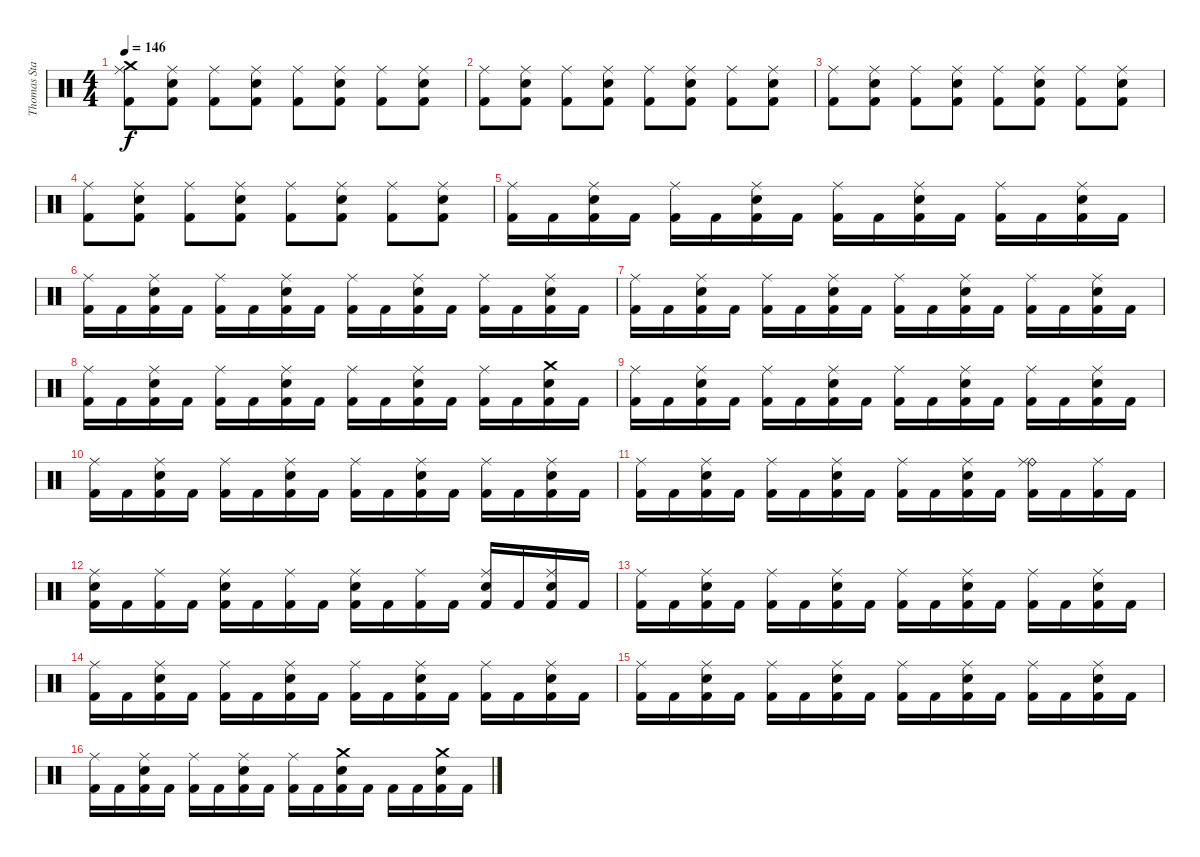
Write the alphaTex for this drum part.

\track ("Thomas Stauch" "Thomas Sta") {instrument percussion}
\staff {score}
\articulation defaults
\ts (4 4)
\tempo 146
\clef neutral
\ks c
("Crash medium (hit)" "Kick (hit) 2" "Ride (middle)").8{dy f} ("Electric Snare (hit)" "Kick (hit) 2" "Ride (middle)").8 ("Kick (hit) 2" "Ride (middle)").8 ("Electric Snare (hit)" "Kick (hit) 2" "Ride (middle)").8 ("Kick (hit) 2" "Ride (middle)").8 ("Electric Snare (hit)" "Kick (hit) 2" "Ride (middle)").8 ("Kick (hit) 2" "Ride (middle)").8 ("Electric Snare (hit)" "Kick (hit) 2" "Ride (middle)").8 |
("Kick (hit) 2" "Ride (middle)").8 ("Electric Snare (hit)" "Kick (hit) 2" "Ride (middle)").8 ("Kick (hit) 2" "Ride (middle)").8 ("Electric Snare (hit)" "Kick (hit) 2" "Ride (middle)").8 ("Kick (hit) 2" "Ride (middle)").8 ("Electric Snare (hit)" "Kick (hit) 2" "Ride (middle)").8 ("Kick (hit) 2" "Ride (middle)").8 ("Electric Snare (hit)" "Kick (hit) 2" "Ride (middle)").8 |
("Kick (hit) 2" "Ride (middle)").8 ("Electric Snare (hit)" "Kick (hit) 2" "Ride (middle)").8 ("Kick (hit) 2" "Ride (middle)").8 ("Electric Snare (hit)" "Kick (hit) 2" "Ride (middle)").8 ("Kick (hit) 2" "Ride (middle)").8 ("Electric Snare (hit)" "Kick (hit) 2" "Ride (middle)").8 ("Kick (hit) 2" "Ride (middle)").8 ("Electric Snare (hit)" "Kick (hit) 2" "Ride (middle)").8 |
("Kick (hit) 2" "Ride (middle)").8 ("Electric Snare (hit)" "Kick (hit) 2" "Ride (middle)").8 ("Kick (hit) 2" "Ride (middle)").8 ("Electric Snare (hit)" "Kick (hit) 2" "Ride (middle)").8 ("Kick (hit) 2" "Ride (middle)").8 ("Electric Snare (hit)" "Kick (hit) 2" "Ride (middle)").8 ("Kick (hit) 2" "Ride (middle)").8 ("Electric Snare (hit)" "Kick (hit) 2" "Ride (middle)").8 |
("Kick (hit) 2" "Ride (middle)").16 "Kick (hit) 2".16 ("Electric Snare (hit)" "Kick (hit) 2" "Ride (middle)").16 "Kick (hit) 2".16 ("Kick (hit) 2" "Ride (middle)").16 "Kick (hit) 2".16 ("Electric Snare (hit)" "Kick (hit) 2" "Ride (middle)").16 "Kick (hit) 2".16 ("Kick (hit) 2" "Ride (middle)").16 "Kick (hit) 2".16 ("Electric Snare (hit)" "Kick (hit) 2" "Ride (middle)").16 "Kick (hit) 2".16 ("Kick (hit) 2" "Ride (middle)").16 "Kick (hit) 2".16 ("Electric Snare (hit)" "Kick (hit) 2" "Ride (middle)").16 "Kick (hit) 2".16 |
("Kick (hit) 2" "Ride (middle)").16 "Kick (hit) 2".16 ("Electric Snare (hit)" "Kick (hit) 2" "Ride (middle)").16 "Kick (hit) 2".16 ("Kick (hit) 2" "Ride (middle)").16 "Kick (hit) 2".16 ("Electric Snare (hit)" "Kick (hit) 2" "Ride (middle)").16 "Kick (hit) 2".16 ("Kick (hit) 2" "Ride (middle)").16 "Kick (hit) 2".16 ("Electric Snare (hit)" "Kick (hit) 2" "Ride (middle)").16 "Kick (hit) 2".16 ("Kick (hit) 2" "Ride (middle)").16 "Kick (hit) 2".16 ("Electric Snare (hit)" "Kick (hit) 2" "Ride (middle)").16 "Kick (hit) 2".16 |
("Kick (hit) 2" "Ride (middle)").16 "Kick (hit) 2".16 ("Electric Snare (hit)" "Kick (hit) 2" "Ride (middle)").16 "Kick (hit) 2".16 ("Kick (hit) 2" "Ride (middle)").16 "Kick (hit) 2".16 ("Electric Snare (hit)" "Kick (hit) 2" "Ride (middle)").16 "Kick (hit) 2".16 ("Kick (hit) 2" "Ride (middle)").16 "Kick (hit) 2".16 ("Electric Snare (hit)" "Kick (hit) 2" "Ride (middle)").16 "Kick (hit) 2".16 ("Kick (hit) 2" "Ride (middle)").16 "Kick (hit) 2".16 ("Electric Snare (hit)" "Kick (hit) 2" "Ride (middle)").16 "Kick (hit) 2".16 |
("Kick (hit) 2" "Ride (middle)").16 "Kick (hit) 2".16 ("Electric Snare (hit)" "Kick (hit) 2" "Ride (middle)").16 "Kick (hit) 2".16 ("Kick (hit) 2" "Ride (middle)").16 "Kick (hit) 2".16 ("Electric Snare (hit)" "Kick (hit) 2" "Ride (middle)").16 "Kick (hit) 2".16 ("Kick (hit) 2" "Ride (middle)").16 "Kick (hit) 2".16 ("Electric Snare (hit)" "Kick (hit) 2" "Ride (middle)").16 "Kick (hit) 2".16 ("Kick (hit) 2" "Ride (middle)").16 "Kick (hit) 2".16 ("Electric Snare (hit)" "Crash medium (hit)" "Kick (hit) 2").16 "Kick (hit) 2".16 |
("Kick (hit) 2" "Ride (middle)").16 "Kick (hit) 2".16 ("Electric Snare (hit)" "Kick (hit) 2" "Ride (middle)").16 "Kick (hit) 2".16 ("Kick (hit) 2" "Ride (middle)").16 "Kick (hit) 2".16 ("Electric Snare (hit)" "Kick (hit) 2" "Ride (middle)").16 "Kick (hit) 2".16 ("Kick (hit) 2" "Ride (middle)").16 "Kick (hit) 2".16 ("Electric Snare (hit)" "Kick (hit) 2" "Ride (middle)").16 "Kick (hit) 2".16 ("Kick (hit) 2" "Ride (middle)").16 "Kick (hit) 2".16 ("Electric Snare (hit)" "Kick (hit) 2" "Ride (middle)").16 "Kick (hit) 2".16 |
("Kick (hit) 2" "Ride (middle)").16 "Kick (hit) 2".16 ("Electric Snare (hit)" "Kick (hit) 2" "Ride (middle)").16 "Kick (hit) 2".16 ("Kick (hit) 2" "Ride (middle)").16 "Kick (hit) 2".16 ("Electric Snare (hit)" "Kick (hit) 2" "Ride (middle)").16 "Kick (hit) 2".16 ("Kick (hit) 2" "Ride (middle)").16 "Kick (hit) 2".16 ("Electric Snare (hit)" "Kick (hit) 2" "Ride (middle)").16 "Kick (hit) 2".16 ("Kick (hit) 2" "Ride (middle)").16 "Kick (hit) 2".16 ("Electric Snare (hit)" "Kick (hit) 2" "Ride (middle)").16 "Kick (hit) 2".16 |
("Kick (hit) 2" "Ride (middle)").16 "Kick (hit) 2".16 ("Electric Snare (hit)" "Kick (hit) 2" "Ride (middle)").16 "Kick (hit) 2".16 ("Kick (hit) 2" "Ride (middle)").16 "Kick (hit) 2".16 ("Electric Snare (hit)" "Kick (hit) 2" "Ride (middle)").16 "Kick (hit) 2".16 ("Kick (hit) 2" "Ride (middle)").16 "Kick (hit) 2".16 ("Electric Snare (hit)" "Kick (hit) 2" "Ride (middle)").16 "Kick (hit) 2".16 ("Ride (bell)" "Kick (hit) 2" "Ride (middle)").16 "Kick (hit) 2".16 ("Kick (hit) 2" "Ride (middle)").16 "Kick (hit) 2".16 |
("Electric Snare (hit)" "Kick (hit) 2" "Ride (middle)").16 "Kick (hit) 2".16 ("Kick (hit) 2" "Ride (middle)").16 "Kick (hit) 2".16 ("Electric Snare (hit)" "Kick (hit) 2" "Ride (middle)").16 "Kick (hit) 2".16 ("Kick (hit) 2" "Ride (middle)").16 "Kick (hit) 2".16 ("Electric Snare (hit)" "Kick (hit) 2" "Ride (middle)").16 "Kick (hit) 2".16 ("Kick (hit) 2" "Ride (middle)").16 "Kick (hit) 2".16 ("Electric Snare (hit)" "Kick (hit) 2" "Ride (middle)").16 "Kick (hit) 2".16 ("Electric Snare (hit)" "Kick (hit) 2" "Ride (middle)").16 "Kick (hit) 2".16 |
("Kick (hit) 2" "Ride (middle)").16 "Kick (hit) 2".16 ("Electric Snare (hit)" "Kick (hit) 2" "Ride (middle)").16 "Kick (hit) 2".16 ("Kick (hit) 2" "Ride (middle)").16 "Kick (hit) 2".16 ("Electric Snare (hit)" "Kick (hit) 2" "Ride (middle)").16 "Kick (hit) 2".16 ("Kick (hit) 2" "Ride (middle)").16 "Kick (hit) 2".16 ("Electric Snare (hit)" "Kick (hit) 2" "Ride (middle)").16 "Kick (hit) 2".16 ("Kick (hit) 2" "Ride (middle)").16 "Kick (hit) 2".16 ("Electric Snare (hit)" "Kick (hit) 2" "Ride (middle)").16 "Kick (hit) 2".16 |
("Kick (hit) 2" "Ride (middle)").16 "Kick (hit) 2".16 ("Electric Snare (hit)" "Kick (hit) 2" "Ride (middle)").16 "Kick (hit) 2".16 ("Kick (hit) 2" "Ride (middle)").16 "Kick (hit) 2".16 ("Electric Snare (hit)" "Kick (hit) 2" "Ride (middle)").16 "Kick (hit) 2".16 ("Kick (hit) 2" "Ride (middle)").16 "Kick (hit) 2".16 ("Electric Snare (hit)" "Kick (hit) 2" "Ride (middle)").16 "Kick (hit) 2".16 ("Kick (hit) 2" "Ride (middle)").16 "Kick (hit) 2".16 ("Electric Snare (hit)" "Kick (hit) 2" "Ride (middle)").16 "Kick (hit) 2".16 |
("Kick (hit) 2" "Ride (middle)").16 "Kick (hit) 2".16 ("Electric Snare (hit)" "Kick (hit) 2" "Ride (middle)").16 "Kick (hit) 2".16 ("Kick (hit) 2" "Ride (middle)").16 "Kick (hit) 2".16 ("Electric Snare (hit)" "Kick (hit) 2" "Ride (middle)").16 "Kick (hit) 2".16 ("Kick (hit) 2" "Ride (middle)").16 "Kick (hit) 2".16 ("Electric Snare (hit)" "Kick (hit) 2" "Ride (middle)").16 "Kick (hit) 2".16 ("Kick (hit) 2" "Ride (middle)").16 "Kick (hit) 2".16 ("Electric Snare (hit)" "Kick (hit) 2" "Ride (middle)").16 "Kick (hit) 2".16 |
("Kick (hit) 2" "Ride (middle)").16 "Kick (hit) 2".16 ("Electric Snare (hit)" "Kick (hit) 2" "Ride (middle)").16 "Kick (hit) 2".16 ("Kick (hit) 2" "Ride (middle)").16 "Kick (hit) 2".16 ("Electric Snare (hit)" "Kick (hit) 2" "Ride (middle)").16 "Kick (hit) 2".16 ("Kick (hit) 2" "Ride (middle)").16 "Kick (hit) 2".16 ("Electric Snare (hit)" "Crash medium (hit)" "Kick (hit) 2").16 "Kick (hit) 2".16 "Kick (hit) 2".16 "Kick (hit) 2".16 ("Electric Snare (hit)" "Crash medium (hit)" "Kick (hit) 2").16 "Kick (hit) 2".16
